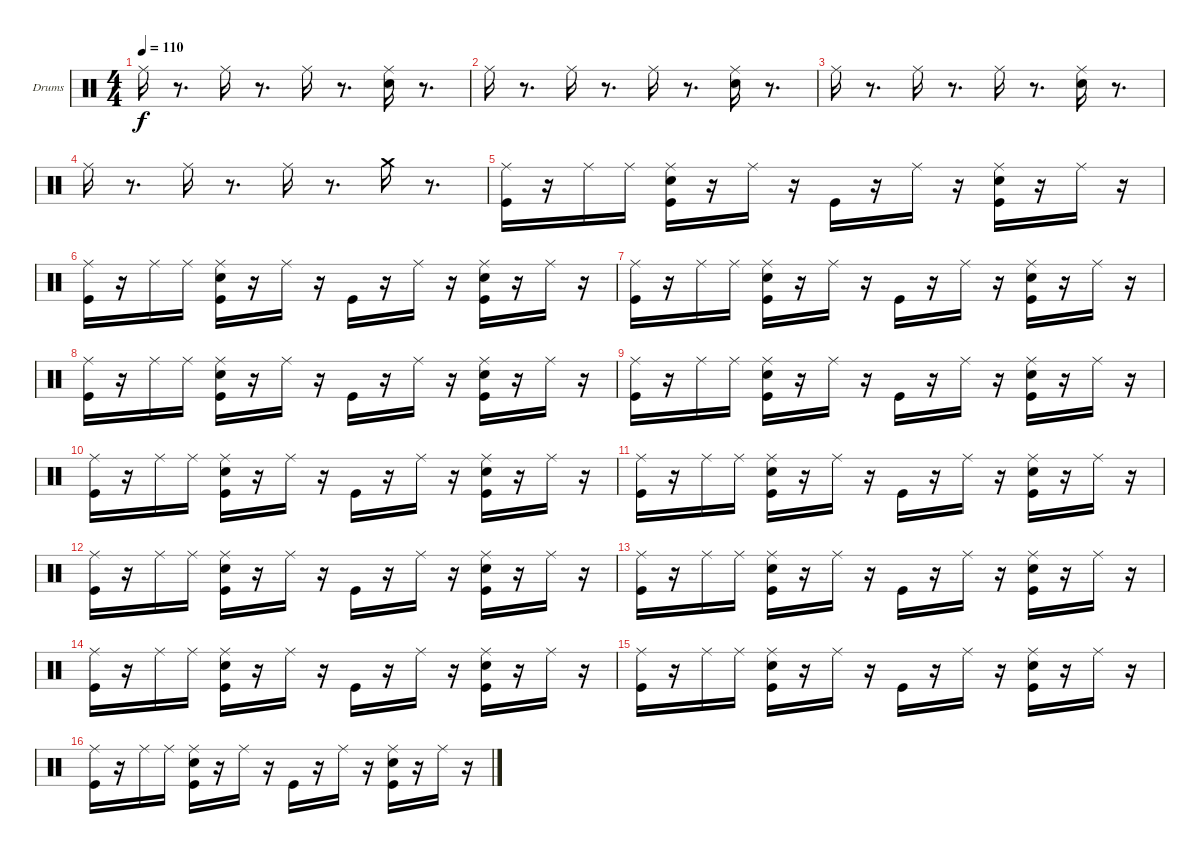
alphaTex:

\bracketExtendMode groupsimilarinstruments
\firstSystemTrackNameOrientation horizontal
\otherSystemsTrackNameOrientation horizontal
\track ("Drumkit" "Drums") {instrument percussion}
\staff {score}
\articulation defaults
\ts (4 4)
\tempo 110
\clef neutral
\ks c "Ride (middle)".16{dy f}
r.8{d} "Ride (middle)".16 r.8{d} "Ride (middle)".16 r.8{d} ("Snare (hit) 2" "Ride (middle)").16 r.8{d} |
"Ride (middle)".16 r.8{d} "Ride (middle)".16 r.8{d} "Ride (middle)".16 r.8{d} ("Snare (hit) 2" "Ride (middle)").16 r.8{d} |
"Ride (middle)".16 r.8{d} "Ride (middle)".16 r.8{d} "Ride (middle)".16 r.8{d} ("Snare (hit) 2" "Ride (middle)").16 r.8{d} |
"Ride (middle)".16 r.8{d} "Ride (middle)".16 r.8{d} "Ride (middle)".16 r.8{d} "Crash medium (hit)".16 r.8{d} |
("Kick (hit)" "Ride (middle)").16 r.16 "Ride (middle)".16 "Ride (middle)".16 ("Snare (hit) 2" "Ride (middle)" "Kick (hit)").16 r.16 "Ride (middle)".16 r.16 "Kick (hit)".16 r.16 "Ride (middle)".16 r.16 ("Snare (hit) 2" "Ride (middle)" "Kick (hit)").16 r.16 "Ride (middle)".16 r.16 |
("Kick (hit)" "Ride (middle)").16 r.16 "Ride (middle)".16 "Ride (middle)".16 ("Snare (hit) 2" "Ride (middle)" "Kick (hit)").16 r.16 "Ride (middle)".16 r.16 "Kick (hit)".16 r.16 "Ride (middle)".16 r.16 ("Snare (hit) 2" "Ride (middle)" "Kick (hit)").16 r.16 "Ride (middle)".16 r.16 |
("Kick (hit)" "Ride (middle)").16 r.16 "Ride (middle)".16 "Ride (middle)".16 ("Snare (hit) 2" "Ride (middle)" "Kick (hit)").16 r.16 "Ride (middle)".16 r.16 "Kick (hit)".16 r.16 "Ride (middle)".16 r.16 ("Snare (hit) 2" "Ride (middle)" "Kick (hit)").16 r.16 "Ride (middle)".16 r.16 |
("Kick (hit)" "Ride (middle)").16 r.16 "Ride (middle)".16 "Ride (middle)".16 ("Snare (hit) 2" "Ride (middle)" "Kick (hit)").16 r.16 "Ride (middle)".16 r.16 "Kick (hit)".16 r.16 "Ride (middle)".16 r.16 ("Snare (hit) 2" "Ride (middle)" "Kick (hit)").16 r.16 "Ride (middle)".16 r.16 |
("Kick (hit)" "Ride (middle)").16 r.16 "Ride (middle)".16 "Ride (middle)".16 ("Snare (hit) 2" "Ride (middle)" "Kick (hit)").16 r.16 "Ride (middle)".16 r.16 "Kick (hit)".16 r.16 "Ride (middle)".16 r.16 ("Snare (hit) 2" "Ride (middle)" "Kick (hit)").16 r.16 "Ride (middle)".16 r.16 |
("Kick (hit)" "Ride (middle)").16 r.16 "Ride (middle)".16 "Ride (middle)".16 ("Snare (hit) 2" "Ride (middle)" "Kick (hit)").16 r.16 "Ride (middle)".16 r.16 "Kick (hit)".16 r.16 "Ride (middle)".16 r.16 ("Snare (hit) 2" "Ride (middle)" "Kick (hit)").16 r.16 "Ride (middle)".16 r.16 |
("Kick (hit)" "Ride (middle)").16 r.16 "Ride (middle)".16 "Ride (middle)".16 ("Snare (hit) 2" "Ride (middle)" "Kick (hit)").16 r.16 "Ride (middle)".16 r.16 "Kick (hit)".16 r.16 "Ride (middle)".16 r.16 ("Snare (hit) 2" "Ride (middle)" "Kick (hit)").16 r.16 "Ride (middle)".16 r.16 |
("Kick (hit)" "Ride (middle)").16 r.16 "Ride (middle)".16 "Ride (middle)".16 ("Snare (hit) 2" "Ride (middle)" "Kick (hit)").16 r.16 "Ride (middle)".16 r.16 "Kick (hit)".16 r.16 "Ride (middle)".16 r.16 ("Snare (hit) 2" "Ride (middle)" "Kick (hit)").16 r.16 "Ride (middle)".16 r.16 |
("Kick (hit)" "Ride (middle)").16 r.16 "Ride (middle)".16 "Ride (middle)".16 ("Snare (hit) 2" "Ride (middle)" "Kick (hit)").16 r.16 "Ride (middle)".16 r.16 "Kick (hit)".16 r.16 "Ride (middle)".16 r.16 ("Snare (hit) 2" "Ride (middle)" "Kick (hit)").16 r.16 "Ride (middle)".16 r.16 |
("Kick (hit)" "Ride (middle)").16 r.16 "Ride (middle)".16 "Ride (middle)".16 ("Snare (hit) 2" "Ride (middle)" "Kick (hit)").16 r.16 "Ride (middle)".16 r.16 "Kick (hit)".16 r.16 "Ride (middle)".16 r.16 ("Snare (hit) 2" "Ride (middle)" "Kick (hit)").16 r.16 "Ride (middle)".16 r.16 |
("Kick (hit)" "Ride (middle)").16 r.16 "Ride (middle)".16 "Ride (middle)".16 ("Snare (hit) 2" "Ride (middle)" "Kick (hit)").16 r.16 "Ride (middle)".16 r.16 "Kick (hit)".16 r.16 "Ride (middle)".16 r.16 ("Snare (hit) 2" "Ride (middle)" "Kick (hit)").16 r.16 "Ride (middle)".16 r.16 |
("Kick (hit)" "Ride (middle)").16 r.16 "Ride (middle)".16 "Ride (middle)".16 ("Snare (hit) 2" "Ride (middle)" "Kick (hit)").16 r.16 "Ride (middle)".16 r.16 "Kick (hit)".16 r.16 "Ride (middle)".16 r.16 ("Snare (hit) 2" "Ride (middle)" "Kick (hit)").16 r.16 "Ride (middle)".16 r.16
